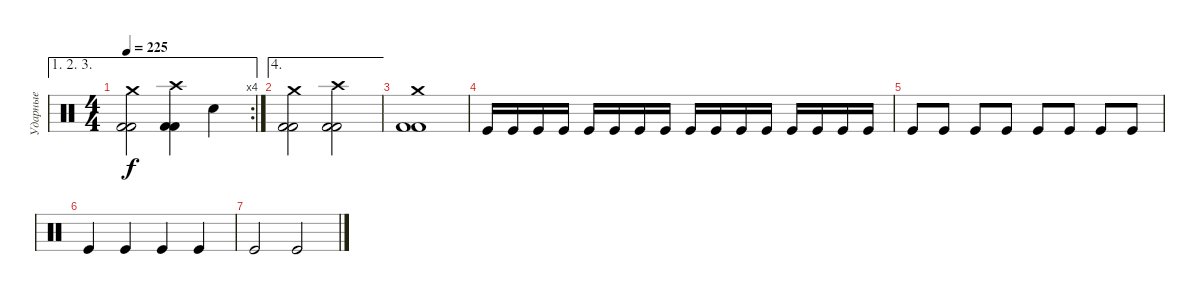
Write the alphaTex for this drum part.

\track ("Ударные" "Ударные") {instrument percussion}
\staff {score}
\articulation defaults
\ae (1 2 3)
\rc 4
\ts (4 4)
\tempo 225
\clef neutral
\ks c
("Crash medium (hit)" "Kick (hit) 2" "Kick (hit) 2").2{dy f} ("Crash high (hit)" "Kick (hit) 2" "Kick (hit) 2").4 "Snare (hit) 2".4 |
\ae 4
("Crash medium (hit)" "Kick (hit) 2" "Kick (hit) 2").2 ("Crash high (hit)" "Kick (hit) 2" "Kick (hit) 2").2 |
("Crash medium (hit)" "Kick (hit) 2" "Kick (hit) 2").1 |
"Kick (hit)".16 "Kick (hit)".16 "Kick (hit)".16 "Kick (hit)".16 "Kick (hit)".16 "Kick (hit)".16 "Kick (hit)".16 "Kick (hit)".16 "Kick (hit)".16 "Kick (hit)".16 "Kick (hit)".16 "Kick (hit)".16 "Kick (hit)".16 "Kick (hit)".16 "Kick (hit)".16 "Kick (hit)".16 |
"Kick (hit)".8 "Kick (hit)".8 "Kick (hit)".8 "Kick (hit)".8 "Kick (hit)".8 "Kick (hit)".8 "Kick (hit)".8 "Kick (hit)".8 |
"Kick (hit)".4 "Kick (hit)".4 "Kick (hit)".4 "Kick (hit)".4 |
"Kick (hit)".2 "Kick (hit)".2
